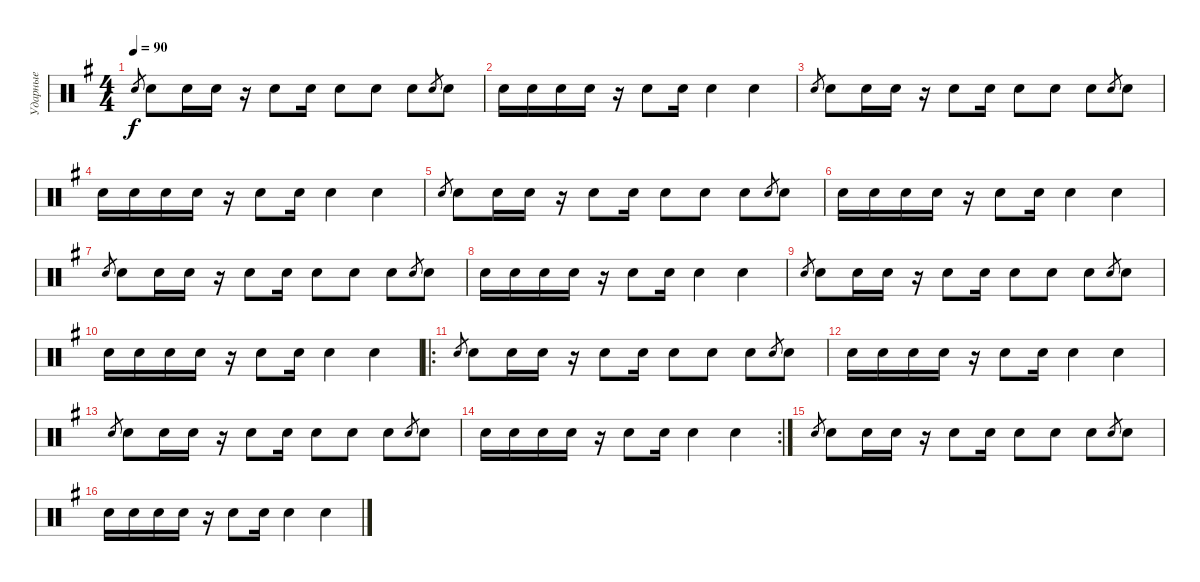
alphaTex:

\track ("Ударные" "Ударные") {instrument percussion}
\staff {score}
\articulation defaults
\ts (4 4)
\tempo 90
\clef neutral
\ks g "Snare (hit) 2".8{gr dy f} "Snare (hit) 2".8 "Snare (hit) 2".16 "Snare (hit) 2".16
r.16 "Snare (hit) 2".8 "Snare (hit) 2".16 "Snare (hit) 2".8 "Snare (hit) 2".8 "Snare (hit) 2".8 "Snare (hit) 2".8{gr} "Snare (hit) 2".8 |
"Snare (hit) 2".16 "Snare (hit) 2".16 "Snare (hit) 2".16 "Snare (hit) 2".16 r.16 "Snare (hit) 2".8 "Snare (hit) 2".16 "Snare (hit) 2".4 "Snare (hit) 2".4 |
"Snare (hit) 2".8{gr} "Snare (hit) 2".8 "Snare (hit) 2".16 "Snare (hit) 2".16 r.16 "Snare (hit) 2".8 "Snare (hit) 2".16 "Snare (hit) 2".8 "Snare (hit) 2".8 "Snare (hit) 2".8 "Snare (hit) 2".8{gr} "Snare (hit) 2".8 |
"Snare (hit) 2".16 "Snare (hit) 2".16 "Snare (hit) 2".16 "Snare (hit) 2".16 r.16 "Snare (hit) 2".8 "Snare (hit) 2".16 "Snare (hit) 2".4 "Snare (hit) 2".4 |
"Snare (hit) 2".8{gr} "Snare (hit) 2".8 "Snare (hit) 2".16 "Snare (hit) 2".16 r.16 "Snare (hit) 2".8 "Snare (hit) 2".16 "Snare (hit) 2".8 "Snare (hit) 2".8 "Snare (hit) 2".8 "Snare (hit) 2".8{gr} "Snare (hit) 2".8 |
"Snare (hit) 2".16 "Snare (hit) 2".16 "Snare (hit) 2".16 "Snare (hit) 2".16 r.16 "Snare (hit) 2".8 "Snare (hit) 2".16 "Snare (hit) 2".4 "Snare (hit) 2".4 |
"Snare (hit) 2".8{gr} "Snare (hit) 2".8 "Snare (hit) 2".16 "Snare (hit) 2".16 r.16 "Snare (hit) 2".8 "Snare (hit) 2".16 "Snare (hit) 2".8 "Snare (hit) 2".8 "Snare (hit) 2".8 "Snare (hit) 2".8{gr} "Snare (hit) 2".8 |
"Snare (hit) 2".16 "Snare (hit) 2".16 "Snare (hit) 2".16 "Snare (hit) 2".16 r.16 "Snare (hit) 2".8 "Snare (hit) 2".16 "Snare (hit) 2".4 "Snare (hit) 2".4 |
"Snare (hit) 2".8{gr} "Snare (hit) 2".8 "Snare (hit) 2".16 "Snare (hit) 2".16 r.16 "Snare (hit) 2".8 "Snare (hit) 2".16 "Snare (hit) 2".8 "Snare (hit) 2".8 "Snare (hit) 2".8 "Snare (hit) 2".8{gr} "Snare (hit) 2".8 |
"Snare (hit) 2".16 "Snare (hit) 2".16 "Snare (hit) 2".16 "Snare (hit) 2".16 r.16 "Snare (hit) 2".8 "Snare (hit) 2".16 "Snare (hit) 2".4 "Snare (hit) 2".4 |
\ro "Snare (hit) 2".8{gr} "Snare (hit) 2".8 "Snare (hit) 2".16 "Snare (hit) 2".16
r.16 "Snare (hit) 2".8 "Snare (hit) 2".16 "Snare (hit) 2".8 "Snare (hit) 2".8 "Snare (hit) 2".8 "Snare (hit) 2".8{gr} "Snare (hit) 2".8 |
"Snare (hit) 2".16 "Snare (hit) 2".16 "Snare (hit) 2".16 "Snare (hit) 2".16 r.16 "Snare (hit) 2".8 "Snare (hit) 2".16 "Snare (hit) 2".4 "Snare (hit) 2".4 |
"Snare (hit) 2".8{gr} "Snare (hit) 2".8 "Snare (hit) 2".16 "Snare (hit) 2".16 r.16 "Snare (hit) 2".8 "Snare (hit) 2".16 "Snare (hit) 2".8 "Snare (hit) 2".8 "Snare (hit) 2".8 "Snare (hit) 2".8{gr} "Snare (hit) 2".8 |
\rc 2 "Snare (hit) 2".16 "Snare (hit) 2".16 "Snare (hit) 2".16 "Snare (hit) 2".16
r.16 "Snare (hit) 2".8 "Snare (hit) 2".16 "Snare (hit) 2".4 "Snare (hit) 2".4 |
"Snare (hit) 2".8{gr} "Snare (hit) 2".8 "Snare (hit) 2".16 "Snare (hit) 2".16 r.16 "Snare (hit) 2".8 "Snare (hit) 2".16 "Snare (hit) 2".8 "Snare (hit) 2".8 "Snare (hit) 2".8 "Snare (hit) 2".8{gr} "Snare (hit) 2".8 |
"Snare (hit) 2".16 "Snare (hit) 2".16 "Snare (hit) 2".16 "Snare (hit) 2".16 r.16 "Snare (hit) 2".8 "Snare (hit) 2".16 "Snare (hit) 2".4 "Snare (hit) 2".4
